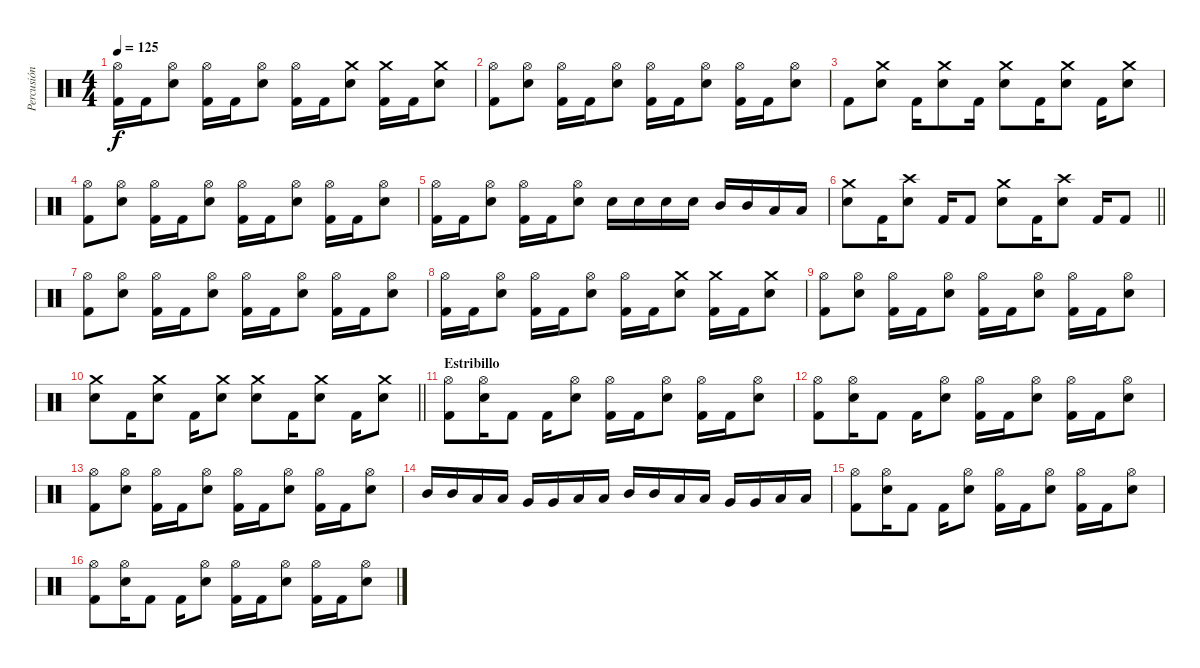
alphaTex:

\track ("Percusión" "Percusión") {instrument percussion}
\staff {score}
\articulation defaults
\ts (4 4)
\tempo 125
\clef neutral
\ks c
("Hi-Hat (open)" "Kick (hit) 2").16{dy f} "Kick (hit) 2".16 ("Hi-Hat (open)" "Snare (hit) 2").8 ("Hi-Hat (open)" "Kick (hit) 2").16 "Kick (hit) 2".16 ("Hi-Hat (open)" "Snare (hit) 2").8 ("Hi-Hat (open)" "Kick (hit) 2").16 "Kick (hit) 2".16 ("Crash medium (hit)" "Snare (hit) 2").8 ("Crash medium (hit)" "Kick (hit) 2").16 "Kick (hit) 2".16 ("Crash medium (hit)" "Snare (hit) 2").8 |
("Hi-Hat (open)" "Kick (hit) 2").8 ("Hi-Hat (open)" "Snare (hit) 2").8 ("Hi-Hat (open)" "Kick (hit) 2").16 "Kick (hit) 2".16 ("Hi-Hat (open)" "Snare (hit) 2").8 ("Hi-Hat (open)" "Kick (hit) 2").16 "Kick (hit) 2".16 ("Hi-Hat (open)" "Snare (hit) 2").8 ("Hi-Hat (open)" "Kick (hit) 2").16 "Kick (hit) 2".16 ("Hi-Hat (open)" "Snare (hit) 2").8 |
"Kick (hit) 2".8 ("Crash medium (hit)" "Snare (hit) 2").8 "Kick (hit) 2".16 ("Crash medium (hit)" "Snare (hit) 2").8 "Kick (hit) 2".16 ("Crash medium (hit)" "Snare (hit) 2").8 "Kick (hit) 2".16 ("Crash medium (hit)" "Snare (hit) 2").8 "Kick (hit) 2".16 ("Crash medium (hit)" "Snare (hit) 2").8 |
("Hi-Hat (open)" "Kick (hit) 2").8 ("Hi-Hat (open)" "Snare (hit) 2").8 ("Hi-Hat (open)" "Kick (hit) 2").16 "Kick (hit) 2".16 ("Hi-Hat (open)" "Snare (hit) 2").8 ("Hi-Hat (open)" "Kick (hit) 2").16 "Kick (hit) 2".16 ("Hi-Hat (open)" "Snare (hit) 2").8 ("Hi-Hat (open)" "Kick (hit) 2").16 "Kick (hit) 2".16 ("Hi-Hat (open)" "Snare (hit) 2").8 |
("Hi-Hat (open)" "Kick (hit) 2").16 "Kick (hit) 2".16 ("Hi-Hat (open)" "Snare (hit) 2").8 ("Hi-Hat (open)" "Kick (hit) 2").16 "Kick (hit) 2".16 ("Hi-Hat (open)" "Snare (hit) 2").8 "Snare (hit) 2".16 "Snare (hit) 2".16 "Snare (hit) 2".16 "Snare (hit) 2".16 "Mid Tom (hit)".16 "Mid Tom (hit)".16 "Low Tom (hit)".16 "Low Tom (hit)".16 |
\barLineRight lightlight
("Crash medium (hit)" "Snare (hit) 2").8 "Kick (hit) 2".16 ("Crash high (hit)" "Snare (hit) 2").8 "Kick (hit) 2".16 "Kick (hit) 2".8 ("Crash medium (hit)" "Snare (hit) 2").8 "Kick (hit) 2".16 ("Crash high (hit)" "Snare (hit) 2").8 "Kick (hit) 2".16 "Kick (hit) 2".8 |
("Hi-Hat (open)" "Kick (hit) 2").8 ("Hi-Hat (open)" "Snare (hit) 2").8 ("Hi-Hat (open)" "Kick (hit) 2").16 "Kick (hit) 2".16 ("Hi-Hat (open)" "Snare (hit) 2").8 ("Hi-Hat (open)" "Kick (hit) 2").16 "Kick (hit) 2".16 ("Hi-Hat (open)" "Snare (hit) 2").8 ("Hi-Hat (open)" "Kick (hit) 2").16 "Kick (hit) 2".16 ("Hi-Hat (open)" "Snare (hit) 2").8 |
("Hi-Hat (open)" "Kick (hit) 2").16 "Kick (hit) 2".16 ("Hi-Hat (open)" "Snare (hit) 2").8 ("Hi-Hat (open)" "Kick (hit) 2").16 "Kick (hit) 2".16 ("Hi-Hat (open)" "Snare (hit) 2").8 ("Hi-Hat (open)" "Kick (hit) 2").16 "Kick (hit) 2".16 ("Crash medium (hit)" "Snare (hit) 2").8 ("Crash medium (hit)" "Kick (hit) 2").16 "Kick (hit) 2".16 ("Crash medium (hit)" "Snare (hit) 2").8 |
("Hi-Hat (open)" "Kick (hit) 2").8 ("Hi-Hat (open)" "Snare (hit) 2").8 ("Hi-Hat (open)" "Kick (hit) 2").16 "Kick (hit) 2".16 ("Hi-Hat (open)" "Snare (hit) 2").8 ("Hi-Hat (open)" "Kick (hit) 2").16 "Kick (hit) 2".16 ("Hi-Hat (open)" "Snare (hit) 2").8 ("Hi-Hat (open)" "Kick (hit) 2").16 "Kick (hit) 2".16 ("Hi-Hat (open)" "Snare (hit) 2").8 |
\barLineRight lightlight
("Crash medium (hit)" "Snare (hit) 2").8 "Kick (hit) 2".16 ("Crash medium (hit)" "Snare (hit) 2").8 "Kick (hit) 2".16 ("Crash medium (hit)" "Snare (hit) 2").8 ("Crash medium (hit)" "Snare (hit) 2").8 "Kick (hit) 2".16 ("Crash medium (hit)" "Snare (hit) 2").8 "Kick (hit) 2".16 ("Crash medium (hit)" "Snare (hit) 2").8 |
\section ("" "Estribillo")
("Hi-Hat (open)" "Kick (hit) 2").8 ("Hi-Hat (open)" "Snare (hit) 2").16 "Kick (hit) 2".8 "Kick (hit) 2".16 ("Hi-Hat (open)" "Snare (hit) 2").8 ("Hi-Hat (open)" "Kick (hit) 2").16 "Kick (hit) 2".16 ("Hi-Hat (open)" "Snare (hit) 2").8 ("Hi-Hat (open)" "Kick (hit) 2").16 "Kick (hit) 2".16 ("Hi-Hat (open)" "Snare (hit) 2").8 |
("Hi-Hat (open)" "Kick (hit) 2").8 ("Hi-Hat (open)" "Snare (hit) 2").16 "Kick (hit) 2".8 "Kick (hit) 2".16 ("Hi-Hat (open)" "Snare (hit) 2").8 ("Hi-Hat (open)" "Kick (hit) 2").16 "Kick (hit) 2".16 ("Hi-Hat (open)" "Snare (hit) 2").8 ("Hi-Hat (open)" "Kick (hit) 2").16 "Kick (hit) 2".16 ("Hi-Hat (open)" "Snare (hit) 2").8 |
("Hi-Hat (open)" "Kick (hit) 2").8 ("Hi-Hat (open)" "Snare (hit) 2").8 ("Hi-Hat (open)" "Kick (hit) 2").16 "Kick (hit) 2".16 ("Hi-Hat (open)" "Snare (hit) 2").8 ("Hi-Hat (open)" "Kick (hit) 2").16 "Kick (hit) 2".16 ("Hi-Hat (open)" "Snare (hit) 2").8 ("Hi-Hat (open)" "Kick (hit) 2").16 "Kick (hit) 2".16 ("Hi-Hat (open)" "Snare (hit) 2").8 |
"Mid Tom (hit)".16 "Mid Tom (hit)".16 "Low Tom (hit)".16 "Low Tom (hit)".16 "Very Low Tom (hit)".16 "Very Low Tom (hit)".16 "Low Floor Tom (hit)".16 "Low Floor Tom (hit)".16 "Mid Tom (hit)".16 "Mid Tom (hit)".16 "Low Tom (hit)".16 "Low Tom (hit)".16 "Very Low Tom (hit)".16 "Very Low Tom (hit)".16 "Low Floor Tom (hit)".16 "Low Floor Tom (hit)".16 |
("Hi-Hat (open)" "Kick (hit) 2").8 ("Hi-Hat (open)" "Snare (hit) 2").16 "Kick (hit) 2".8 "Kick (hit) 2".16 ("Hi-Hat (open)" "Snare (hit) 2").8 ("Hi-Hat (open)" "Kick (hit) 2").16 "Kick (hit) 2".16 ("Hi-Hat (open)" "Snare (hit) 2").8 ("Hi-Hat (open)" "Kick (hit) 2").16 "Kick (hit) 2".16 ("Hi-Hat (open)" "Snare (hit) 2").8 |
("Hi-Hat (open)" "Kick (hit) 2").8 ("Hi-Hat (open)" "Snare (hit) 2").16 "Kick (hit) 2".8 "Kick (hit) 2".16 ("Hi-Hat (open)" "Snare (hit) 2").8 ("Hi-Hat (open)" "Kick (hit) 2").16 "Kick (hit) 2".16 ("Hi-Hat (open)" "Snare (hit) 2").8 ("Hi-Hat (open)" "Kick (hit) 2").16 "Kick (hit) 2".16 ("Hi-Hat (open)" "Snare (hit) 2").8
